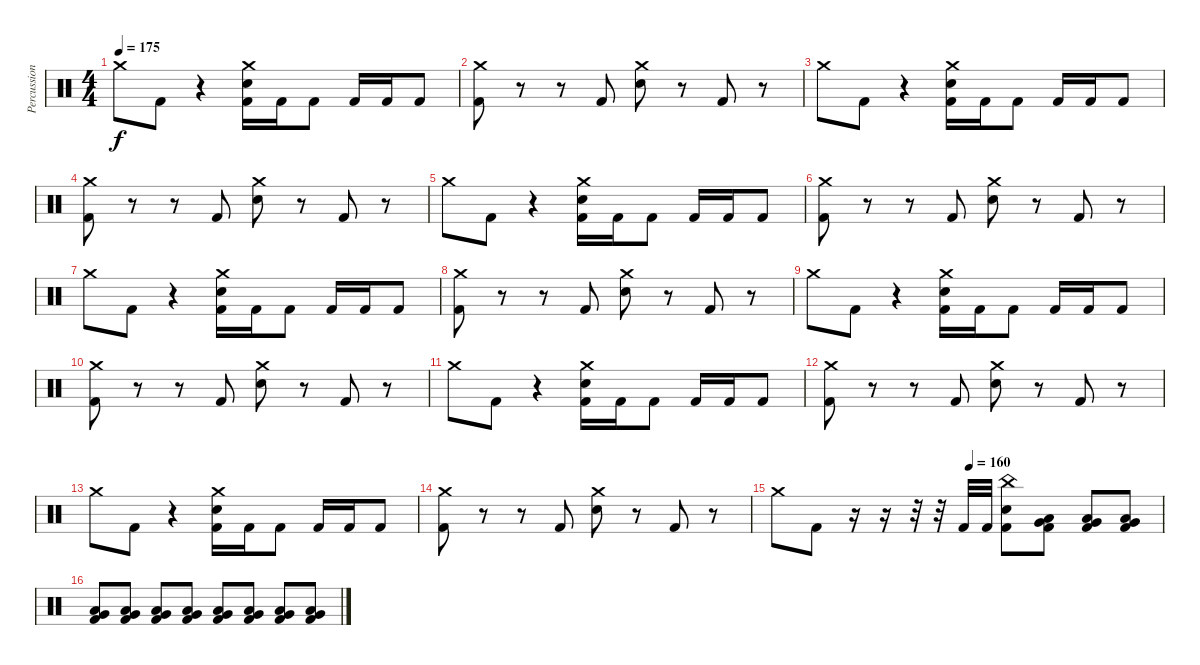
\track ("Percussion" "Percussion") {instrument percussion}
\staff {score}
\articulation defaults
\ts (4 4)
\tempo 175
\clef neutral
\ks c "Crash medium (hit)".8{dy f} "Kick (hit) 2".8
r.4 ("Crash medium (hit)" "Electric Snare (hit)" "Kick (hit) 2").16 "Kick (hit) 2".16 "Kick (hit) 2".8 "Kick (hit) 2".16 "Kick (hit) 2".16 "Kick (hit) 2".8 |
("Crash medium (hit)" "Kick (hit) 2").8 r.8 r.8 "Kick (hit) 2".8 ("Crash medium (hit)" "Electric Snare (hit)").8 r.8 "Kick (hit) 2".8 r.8 |
"Crash medium (hit)".8 "Kick (hit) 2".8 r.4 ("Crash medium (hit)" "Electric Snare (hit)" "Kick (hit) 2").16 "Kick (hit) 2".16 "Kick (hit) 2".8 "Kick (hit) 2".16 "Kick (hit) 2".16 "Kick (hit) 2".8 |
("Crash medium (hit)" "Kick (hit) 2").8 r.8 r.8 "Kick (hit) 2".8 ("Crash medium (hit)" "Electric Snare (hit)").8 r.8 "Kick (hit) 2".8 r.8 |
"Crash medium (hit)".8 "Kick (hit) 2".8 r.4 ("Crash medium (hit)" "Electric Snare (hit)" "Kick (hit) 2").16 "Kick (hit) 2".16 "Kick (hit) 2".8 "Kick (hit) 2".16 "Kick (hit) 2".16 "Kick (hit) 2".8 |
("Crash medium (hit)" "Kick (hit) 2").8 r.8 r.8 "Kick (hit) 2".8 ("Crash medium (hit)" "Electric Snare (hit)").8 r.8 "Kick (hit) 2".8 r.8 |
"Crash medium (hit)".8 "Kick (hit) 2".8 r.4 ("Crash medium (hit)" "Electric Snare (hit)" "Kick (hit) 2").16 "Kick (hit) 2".16 "Kick (hit) 2".8 "Kick (hit) 2".16 "Kick (hit) 2".16 "Kick (hit) 2".8 |
("Crash medium (hit)" "Kick (hit) 2").8 r.8 r.8 "Kick (hit) 2".8 ("Crash medium (hit)" "Electric Snare (hit)").8 r.8 "Kick (hit) 2".8 r.8 |
"Crash medium (hit)".8 "Kick (hit) 2".8 r.4 ("Crash medium (hit)" "Electric Snare (hit)" "Kick (hit) 2").16 "Kick (hit) 2".16 "Kick (hit) 2".8 "Kick (hit) 2".16 "Kick (hit) 2".16 "Kick (hit) 2".8 |
("Crash medium (hit)" "Kick (hit) 2").8 r.8 r.8 "Kick (hit) 2".8 ("Crash medium (hit)" "Electric Snare (hit)").8 r.8 "Kick (hit) 2".8 r.8 |
"Crash medium (hit)".8 "Kick (hit) 2".8 r.4 ("Crash medium (hit)" "Electric Snare (hit)" "Kick (hit) 2").16 "Kick (hit) 2".16 "Kick (hit) 2".8 "Kick (hit) 2".16 "Kick (hit) 2".16 "Kick (hit) 2".8 |
("Crash medium (hit)" "Kick (hit) 2").8 r.8 r.8 "Kick (hit) 2".8 ("Crash medium (hit)" "Electric Snare (hit)").8 r.8 "Kick (hit) 2".8 r.8 |
"Crash medium (hit)".8 "Kick (hit) 2".8 r.4 ("Crash medium (hit)" "Electric Snare (hit)" "Kick (hit) 2").16 "Kick (hit) 2".16 "Kick (hit) 2".8 "Kick (hit) 2".16 "Kick (hit) 2".16 "Kick (hit) 2".8 |
("Crash medium (hit)" "Kick (hit) 2").8 r.8 r.8 "Kick (hit) 2".8 ("Crash medium (hit)" "Electric Snare (hit)").8 r.8 "Kick (hit) 2".8 r.8 |
\tempo (160 0.5)
"Crash medium (hit)".8 "Kick (hit) 2".8 r.16 r.16 r.32 r.32 "Kick (hit) 2".32 "Kick (hit) 2".32 ("China (hit)" "Electric Snare (hit)" "Kick (hit) 2").8 ("Very Low Tom (hit)" "Low Tom (hit)" "Kick (hit) 2").8 ("Very Low Tom (hit)" "Low Tom (hit)" "Kick (hit) 2").8 ("Very Low Tom (hit)" "Low Tom (hit)" "Kick (hit) 2").8 |
("Very Low Tom (hit)" "Low Tom (hit)" "Kick (hit) 2").8 ("Very Low Tom (hit)" "Low Tom (hit)" "Kick (hit) 2").8 ("Very Low Tom (hit)" "Low Tom (hit)" "Kick (hit) 2").8 ("Very Low Tom (hit)" "Low Tom (hit)" "Kick (hit) 2").8 ("Very Low Tom (hit)" "Low Tom (hit)" "Kick (hit) 2").8 ("Very Low Tom (hit)" "Low Tom (hit)" "Kick (hit) 2").8 ("Very Low Tom (hit)" "Low Tom (hit)" "Kick (hit) 2").8 ("Very Low Tom (hit)" "Low Tom (hit)" "Kick (hit) 2").8
